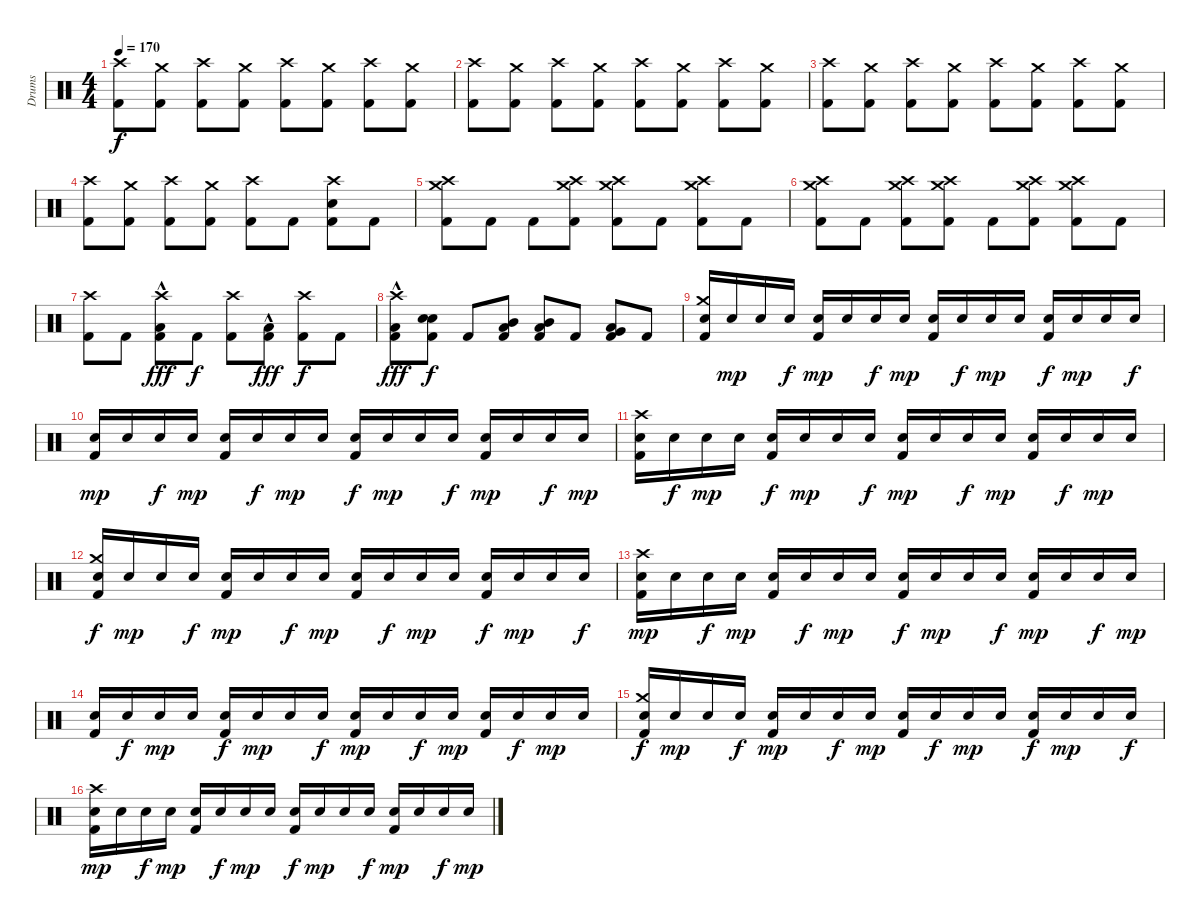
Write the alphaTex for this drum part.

\track ("Drums" "Drums") {instrument percussion}
\staff {score}
\articulation defaults
\ts (4 4)
\tempo 170
\clef neutral
\ks c
("Crash high (hit)" "Kick (hit) 2").8{dy f} ("Crash medium (hit)" "Kick (hit) 2").8 ("Crash high (hit)" "Kick (hit) 2").8 ("Crash medium (hit)" "Kick (hit) 2").8 ("Crash high (hit)" "Kick (hit) 2").8 ("Crash medium (hit)" "Kick (hit) 2").8 ("Crash high (hit)" "Kick (hit) 2").8 ("Crash medium (hit)" "Kick (hit) 2").8 |
("Crash high (hit)" "Kick (hit) 2").8 ("Crash medium (hit)" "Kick (hit) 2").8 ("Crash high (hit)" "Kick (hit) 2").8 ("Crash medium (hit)" "Kick (hit) 2").8 ("Crash high (hit)" "Kick (hit) 2").8 ("Crash medium (hit)" "Kick (hit) 2").8 ("Crash high (hit)" "Kick (hit) 2").8 ("Crash medium (hit)" "Kick (hit) 2").8 |
("Crash high (hit)" "Kick (hit) 2").8 ("Crash medium (hit)" "Kick (hit) 2").8 ("Crash high (hit)" "Kick (hit) 2").8 ("Crash medium (hit)" "Kick (hit) 2").8 ("Crash high (hit)" "Kick (hit) 2").8 ("Crash medium (hit)" "Kick (hit) 2").8 ("Crash high (hit)" "Kick (hit) 2").8 ("Crash medium (hit)" "Kick (hit) 2").8 |
("Crash high (hit)" "Kick (hit) 2").8 ("Crash medium (hit)" "Kick (hit) 2").8 ("Crash high (hit)" "Kick (hit) 2").8 ("Crash medium (hit)" "Kick (hit) 2").8 ("Crash high (hit)" "Kick (hit) 2").8 "Kick (hit) 2".8 ("Crash high (hit)" "Electric Snare (hit)" "Kick (hit) 2").8 "Kick (hit) 2".8 |
("Crash high (hit)" "Crash medium (hit)" "Kick (hit) 2").8 "Kick (hit) 2".8 "Kick (hit) 2".8 ("Crash high (hit)" "Crash medium (hit)" "Kick (hit) 2").8 ("Crash high (hit)" "Crash medium (hit)" "Kick (hit) 2").8 "Kick (hit) 2".8 ("Crash high (hit)" "Crash medium (hit)" "Kick (hit) 2").8 "Kick (hit) 2".8 |
("Crash high (hit)" "Crash medium (hit)" "Kick (hit) 2").8 "Kick (hit) 2".8 ("Crash high (hit)" "Crash medium (hit)" "Kick (hit) 2").8 ("Crash high (hit)" "Crash medium (hit)" "Kick (hit) 2").8 "Kick (hit) 2".8 ("Crash high (hit)" "Crash medium (hit)" "Kick (hit) 2").8 ("Crash high (hit)" "Crash medium (hit)" "Kick (hit) 2").8 "Kick (hit) 2".8 |
("Crash high (hit)" "Kick (hit) 2").8 "Kick (hit) 2".8 ("Crash high (hit)" "Low Floor Tom (hit)"{hac} "Kick (hit) 2").8{dy fff} "Kick (hit) 2".8{dy f} ("Crash high (hit)" "Kick (hit) 2").8 ("Low Floor Tom (hit)"{hac} "Kick (hit) 2").8{dy fff} ("Crash high (hit)" "Kick (hit) 2").8{dy f} "Kick (hit) 2".8 |
("Crash high (hit)" "Low Tom (hit)"{hac} "Kick (hit) 2").8{dy fff} ("Electric Snare (hit)" "Electric Snare (hit)" "Kick (hit) 2").8{dy f} "Kick (hit) 2".8 ("Mid Tom (hit)" "Low Floor Tom (hit)" "Kick (hit) 2").8 ("Mid Tom (hit)" "Low Floor Tom (hit)" "Kick (hit) 2").8 "Kick (hit) 2".8 ("Very Low Tom (hit)" "Low Floor Tom (hit)" "Kick (hit) 2").8 "Kick (hit) 2".8 |
("Crash medium (hit)" "Electric Snare (hit)" "Kick (hit) 2").16 "Electric Snare (hit)".16{dy mp} "Electric Snare (hit)".16 "Electric Snare (hit)".16{dy f} ("Electric Snare (hit)" "Kick (hit) 2").16{dy mp} "Electric Snare (hit)".16 "Electric Snare (hit)".16{dy f} "Electric Snare (hit)".16{dy mp} ("Electric Snare (hit)" "Kick (hit) 2").16 "Electric Snare (hit)".16{dy f} "Electric Snare (hit)".16{dy mp} "Electric Snare (hit)".16 ("Electric Snare (hit)" "Kick (hit) 2").16{dy f} "Electric Snare (hit)".16{dy mp} "Electric Snare (hit)".16 "Electric Snare (hit)".16{dy f} |
("Electric Snare (hit)" "Kick (hit) 2").16{dy mp} "Electric Snare (hit)".16 "Electric Snare (hit)".16{dy f} "Electric Snare (hit)".16{dy mp} ("Electric Snare (hit)" "Kick (hit) 2").16 "Electric Snare (hit)".16{dy f} "Electric Snare (hit)".16{dy mp} "Electric Snare (hit)".16 ("Electric Snare (hit)" "Kick (hit) 2").16{dy f} "Electric Snare (hit)".16{dy mp} "Electric Snare (hit)".16 "Electric Snare (hit)".16{dy f} ("Electric Snare (hit)" "Kick (hit) 2").16{dy mp} "Electric Snare (hit)".16 "Electric Snare (hit)".16{dy f} "Electric Snare (hit)".16{dy mp} |
("Crash high (hit)" "Electric Snare (hit)" "Kick (hit) 2").16 "Electric Snare (hit)".16{dy f} "Electric Snare (hit)".16{dy mp} "Electric Snare (hit)".16 ("Electric Snare (hit)" "Kick (hit) 2").16{dy f} "Electric Snare (hit)".16{dy mp} "Electric Snare (hit)".16 "Electric Snare (hit)".16{dy f} ("Electric Snare (hit)" "Kick (hit) 2").16{dy mp} "Electric Snare (hit)".16 "Electric Snare (hit)".16{dy f} "Electric Snare (hit)".16{dy mp} ("Electric Snare (hit)" "Kick (hit) 2").16 "Electric Snare (hit)".16{dy f} "Electric Snare (hit)".16{dy mp} "Electric Snare (hit)".16 |
("Crash medium (hit)" "Electric Snare (hit)" "Kick (hit) 2").16{dy f} "Electric Snare (hit)".16{dy mp} "Electric Snare (hit)".16 "Electric Snare (hit)".16{dy f} ("Electric Snare (hit)" "Kick (hit) 2").16{dy mp} "Electric Snare (hit)".16 "Electric Snare (hit)".16{dy f} "Electric Snare (hit)".16{dy mp} ("Electric Snare (hit)" "Kick (hit) 2").16 "Electric Snare (hit)".16{dy f} "Electric Snare (hit)".16{dy mp} "Electric Snare (hit)".16 ("Electric Snare (hit)" "Kick (hit) 2").16{dy f} "Electric Snare (hit)".16{dy mp} "Electric Snare (hit)".16 "Electric Snare (hit)".16{dy f} |
("Crash high (hit)" "Electric Snare (hit)" "Kick (hit) 2").16{dy mp} "Electric Snare (hit)".16 "Electric Snare (hit)".16{dy f} "Electric Snare (hit)".16{dy mp} ("Electric Snare (hit)" "Kick (hit) 2").16 "Electric Snare (hit)".16{dy f} "Electric Snare (hit)".16{dy mp} "Electric Snare (hit)".16 ("Electric Snare (hit)" "Kick (hit) 2").16{dy f} "Electric Snare (hit)".16{dy mp} "Electric Snare (hit)".16 "Electric Snare (hit)".16{dy f} ("Electric Snare (hit)" "Kick (hit) 2").16{dy mp} "Electric Snare (hit)".16 "Electric Snare (hit)".16{dy f} "Electric Snare (hit)".16{dy mp} |
("Electric Snare (hit)" "Kick (hit) 2").16 "Electric Snare (hit)".16{dy f} "Electric Snare (hit)".16{dy mp} "Electric Snare (hit)".16 ("Electric Snare (hit)" "Kick (hit) 2").16{dy f} "Electric Snare (hit)".16{dy mp} "Electric Snare (hit)".16 "Electric Snare (hit)".16{dy f} ("Electric Snare (hit)" "Kick (hit) 2").16{dy mp} "Electric Snare (hit)".16 "Electric Snare (hit)".16{dy f} "Electric Snare (hit)".16{dy mp} ("Electric Snare (hit)" "Kick (hit) 2").16 "Electric Snare (hit)".16{dy f} "Electric Snare (hit)".16{dy mp} "Electric Snare (hit)".16 |
("Crash medium (hit)" "Electric Snare (hit)" "Kick (hit) 2").16{dy f} "Electric Snare (hit)".16{dy mp} "Electric Snare (hit)".16 "Electric Snare (hit)".16{dy f} ("Electric Snare (hit)" "Kick (hit) 2").16{dy mp} "Electric Snare (hit)".16 "Electric Snare (hit)".16{dy f} "Electric Snare (hit)".16{dy mp} ("Electric Snare (hit)" "Kick (hit) 2").16 "Electric Snare (hit)".16{dy f} "Electric Snare (hit)".16{dy mp} "Electric Snare (hit)".16 ("Electric Snare (hit)" "Kick (hit) 2").16{dy f} "Electric Snare (hit)".16{dy mp} "Electric Snare (hit)".16 "Electric Snare (hit)".16{dy f} |
("Crash high (hit)" "Electric Snare (hit)" "Kick (hit) 2").16{dy mp} "Electric Snare (hit)".16 "Electric Snare (hit)".16{dy f} "Electric Snare (hit)".16{dy mp} ("Electric Snare (hit)" "Kick (hit) 2").16 "Electric Snare (hit)".16{dy f} "Electric Snare (hit)".16{dy mp} "Electric Snare (hit)".16 ("Electric Snare (hit)" "Kick (hit) 2").16{dy f} "Electric Snare (hit)".16{dy mp} "Electric Snare (hit)".16 "Electric Snare (hit)".16{dy f} ("Electric Snare (hit)" "Kick (hit) 2").16{dy mp} "Electric Snare (hit)".16 "Electric Snare (hit)".16{dy f} "Electric Snare (hit)".16{dy mp}
